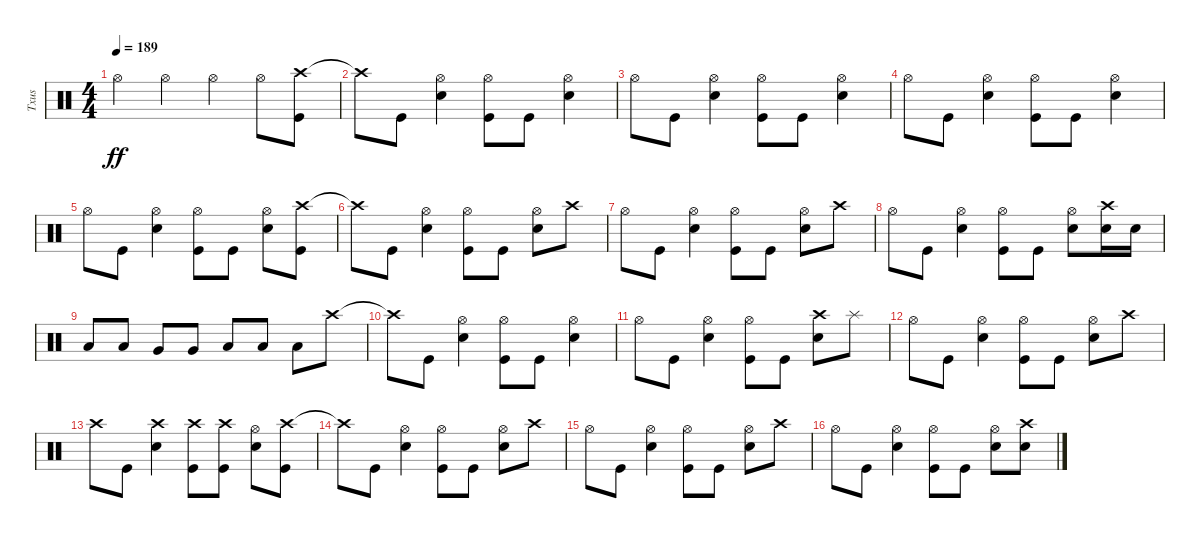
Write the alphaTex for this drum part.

\track ("Txus" "Txus") {instrument percussion}
\staff {score}
\articulation defaults
\ts (4 4)
\tempo 189
\clef neutral
\ks c "Hi-Hat (open)".4{dy ff} "Hi-Hat (open)".4 "Hi-Hat (open)".4 "Hi-Hat (open)".8
("Crash high (hit)" "Kick (hit)").8 |
"Crash high (hit)"{t}.8 "Kick (hit)".8 ("Snare (hit) 2" "Hi-Hat (open)").4 ("Kick (hit)" "Hi-Hat (open)").8 "Kick (hit)".8 ("Snare (hit) 2" "Hi-Hat (open)").4 |
"Hi-Hat (open)".8 "Kick (hit)".8 ("Snare (hit) 2" "Hi-Hat (open)").4 ("Kick (hit)" "Hi-Hat (open)").8 "Kick (hit)".8 ("Snare (hit) 2" "Hi-Hat (open)").4 |
"Hi-Hat (open)".8 "Kick (hit)".8 ("Snare (hit) 2" "Hi-Hat (open)").4 ("Kick (hit)" "Hi-Hat (open)").8 "Kick (hit)".8 ("Snare (hit) 2" "Hi-Hat (open)").4 |
"Hi-Hat (open)".8 "Kick (hit)".8 ("Snare (hit) 2" "Hi-Hat (open)").4 ("Kick (hit)" "Hi-Hat (open)").8 "Kick (hit)".8 ("Snare (hit) 2" "Hi-Hat (open)").8 ("Crash high (hit)" "Kick (hit)").8 |
"Crash high (hit)"{t}.8 "Kick (hit)".8 ("Snare (hit) 2" "Hi-Hat (open)").4 ("Kick (hit)" "Hi-Hat (open)").8 "Kick (hit)".8 ("Snare (hit) 2" "Hi-Hat (open)").8 "Crash high (hit)".8 |
"Hi-Hat (open)".8 "Kick (hit)".8 ("Snare (hit) 2" "Hi-Hat (open)").4 ("Kick (hit)" "Hi-Hat (open)").8 "Kick (hit)".8 ("Snare (hit) 2" "Hi-Hat (open)").8 "Crash high (hit)".8 |
"Hi-Hat (open)".8 "Kick (hit)".8 ("Snare (hit) 2" "Hi-Hat (open)").4 ("Kick (hit)" "Hi-Hat (open)").8 "Kick (hit)".8 ("Snare (hit) 2" "Hi-Hat (open)").8 ("Snare (hit) 2" "Crash high (hit)").16 "Snare (hit) 2".16 |
"Low Tom (hit)".8 "Low Tom (hit)".8 "Very Low Tom (hit)".8 "Very Low Tom (hit)".8 "Low Floor Tom (hit)".8 "Low Floor Tom (hit)".8 "Low Floor Tom (hit)".8 "Crash high (hit)".8 |
"Crash high (hit)"{t}.8 "Kick (hit)".8 ("Snare (hit) 2" "Hi-Hat (open)").4 ("Kick (hit)" "Hi-Hat (open)").8 "Kick (hit)".8 ("Snare (hit) 2" "Hi-Hat (open)").4 |
"Hi-Hat (open)".8 "Kick (hit)".8 ("Snare (hit) 2" "Hi-Hat (open)").4 ("Kick (hit)" "Hi-Hat (open)").8 "Kick (hit)".8 ("Snare (hit) 2" "Crash high (hit)").8 "Splash (hit)".8 |
"Hi-Hat (open)".8 "Kick (hit)".8 ("Snare (hit) 2" "Hi-Hat (open)").4 ("Kick (hit)" "Hi-Hat (open)").8 "Kick (hit)".8 ("Snare (hit) 2" "Hi-Hat (open)").8 "Crash high (hit)".8 |
"Crash high (hit)".8 "Kick (hit)".8 ("Snare (hit) 2" "Crash high (hit)").4 ("Kick (hit)" "Crash high (hit)").8 ("Kick (hit)" "Crash high (hit)").8 ("Snare (hit) 2" "Hi-Hat (open)").8 ("Crash high (hit)" "Kick (hit)").8 |
"Crash high (hit)"{t}.8 "Kick (hit)".8 ("Snare (hit) 2" "Hi-Hat (open)").4 ("Kick (hit)" "Hi-Hat (open)").8 "Kick (hit)".8 ("Snare (hit) 2" "Hi-Hat (open)").8 "Crash high (hit)".8 |
"Hi-Hat (open)".8 "Kick (hit)".8 ("Snare (hit) 2" "Hi-Hat (open)").4 ("Kick (hit)" "Hi-Hat (open)").8 "Kick (hit)".8 ("Snare (hit) 2" "Hi-Hat (open)").8 "Crash high (hit)".8 |
"Hi-Hat (open)".8 "Kick (hit)".8 ("Snare (hit) 2" "Hi-Hat (open)").4 ("Kick (hit)" "Hi-Hat (open)").8 "Kick (hit)".8 ("Snare (hit) 2" "Hi-Hat (open)").8 ("Snare (hit) 2" "Crash high (hit)").8
